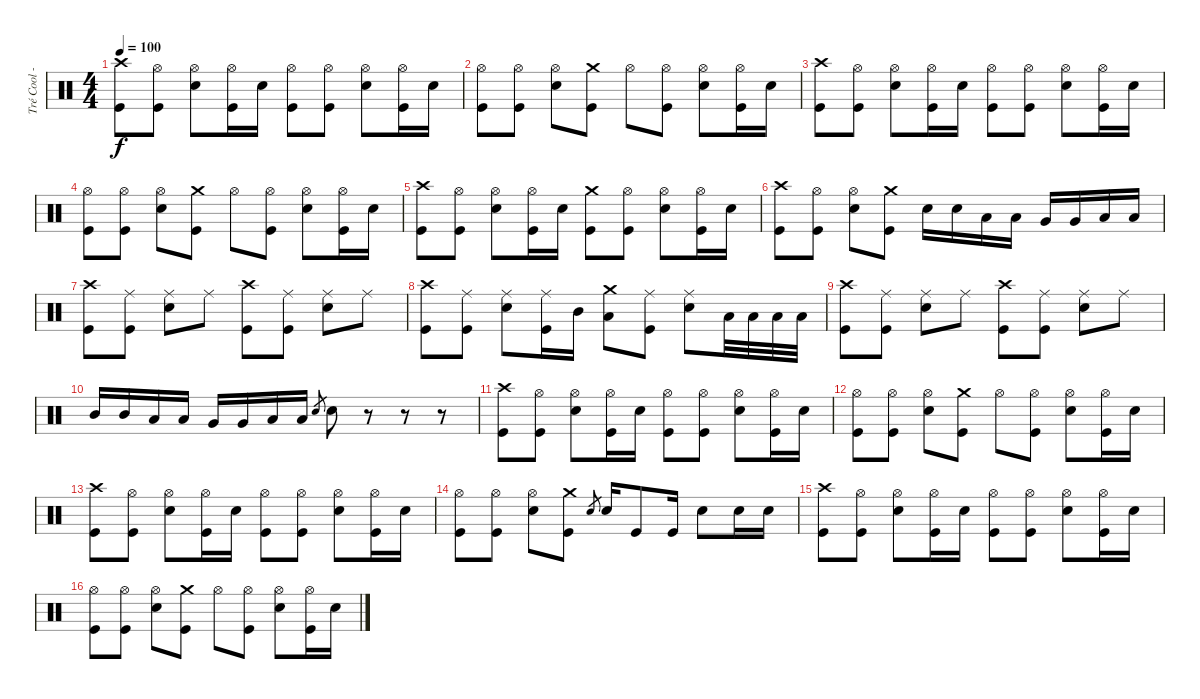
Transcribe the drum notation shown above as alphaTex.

\track ("Tré Cool - Drums" "Tré Cool -") {instrument percussion}
\staff {score}
\articulation defaults
\ts (4 4)
\tempo 100
\clef neutral
\ks c
("Crash high (hit)" "Kick (hit)").8{dy f} ("Hi-Hat (open)" "Kick (hit)").8 ("Hi-Hat (open)" "Electric Snare (hit)").8 ("Hi-Hat (open)" "Kick (hit)").16 "Electric Snare (hit)".16 ("Hi-Hat (open)" "Kick (hit)").8 ("Hi-Hat (open)" "Kick (hit)").8 ("Hi-Hat (open)" "Electric Snare (hit)").8 ("Hi-Hat (open)" "Kick (hit)").16 "Electric Snare (hit)".16 |
("Hi-Hat (open)" "Kick (hit)").8 ("Hi-Hat (open)" "Kick (hit)").8 ("Hi-Hat (open)" "Electric Snare (hit)").8 ("Crash medium (hit)" "Kick (hit)").8 "Hi-Hat (open)".8 ("Hi-Hat (open)" "Kick (hit)").8 ("Hi-Hat (open)" "Electric Snare (hit)").8 ("Hi-Hat (open)" "Kick (hit)").16 "Electric Snare (hit)".16 |
("Crash high (hit)" "Kick (hit)").8 ("Hi-Hat (open)" "Kick (hit)").8 ("Hi-Hat (open)" "Electric Snare (hit)").8 ("Hi-Hat (open)" "Kick (hit)").16 "Electric Snare (hit)".16 ("Hi-Hat (open)" "Kick (hit)").8 ("Hi-Hat (open)" "Kick (hit)").8 ("Hi-Hat (open)" "Electric Snare (hit)").8 ("Hi-Hat (open)" "Kick (hit)").16 "Electric Snare (hit)".16 |
("Hi-Hat (open)" "Kick (hit)").8 ("Hi-Hat (open)" "Kick (hit)").8 ("Hi-Hat (open)" "Electric Snare (hit)").8 ("Crash medium (hit)" "Kick (hit)").8 "Hi-Hat (open)".8 ("Hi-Hat (open)" "Kick (hit)").8 ("Hi-Hat (open)" "Electric Snare (hit)").8 ("Hi-Hat (open)" "Kick (hit)").16 "Electric Snare (hit)".16 |
("Crash high (hit)" "Kick (hit)").8 ("Hi-Hat (open)" "Kick (hit)").8 ("Hi-Hat (open)" "Electric Snare (hit)").8 ("Hi-Hat (open)" "Kick (hit)").16 "Electric Snare (hit)".16 ("Crash medium (hit)" "Kick (hit)").8 ("Hi-Hat (open)" "Kick (hit)").8 ("Hi-Hat (open)" "Electric Snare (hit)").8 ("Hi-Hat (open)" "Kick (hit)").16 "Electric Snare (hit)".16 |
("Crash high (hit)" "Kick (hit)").8 ("Hi-Hat (open)" "Kick (hit)").8 ("Hi-Hat (open)" "Electric Snare (hit)").8 ("Crash medium (hit)" "Kick (hit)").8 "Electric Snare (hit)".16 "Electric Snare (hit)".16 "Low Tom (hit)".16 "Low Tom (hit)".16 "Very Low Tom (hit)".16 "Very Low Tom (hit)".16 "Low Floor Tom (hit)".16 "Low Floor Tom (hit)".16 |
("Crash high (hit)" "Kick (hit)").8 ("Ride (middle)" "Kick (hit)").8 ("Ride (middle)" "Electric Snare (hit)").8 "Ride (middle)".8 ("Crash high (hit)" "Kick (hit)").8 ("Ride (middle)" "Kick (hit)").8 ("Ride (middle)" "Electric Snare (hit)").8 "Ride (middle)".8 |
("Crash high (hit)" "Kick (hit)").8 ("Ride (middle)" "Kick (hit)").8 ("Ride (middle)" "Electric Snare (hit)").8 ("Ride (middle)" "Kick (hit)").16 "Mid Tom (hit)".16 ("Crash medium (hit)" "Low Tom (hit)").8 ("Ride (middle)" "Kick (hit)").8 ("Ride (middle)" "Electric Snare (hit)").8 "Low Floor Tom (hit)".32 "Low Floor Tom (hit)".32 "Low Floor Tom (hit)".32 "Low Floor Tom (hit)".32 |
("Crash high (hit)" "Kick (hit)").8 ("Ride (middle)" "Kick (hit)").8 ("Ride (middle)" "Electric Snare (hit)").8 "Ride (middle)".8 ("Crash high (hit)" "Kick (hit)").8 ("Ride (middle)" "Kick (hit)").8 ("Ride (middle)" "Electric Snare (hit)").8 "Ride (middle)".8 |
"Mid Tom (hit)".16 "Mid Tom (hit)".16 "Low Tom (hit)".16 "Low Tom (hit)".16 "Very Low Tom (hit)".16 "Very Low Tom (hit)".16 "Low Floor Tom (hit)".16 "Low Floor Tom (hit)".16 "Electric Snare (hit)".8{gr} "Electric Snare (hit)".8 r.8 r.8 r.8 |
("Crash high (hit)" "Kick (hit)").8 ("Hi-Hat (open)" "Kick (hit)").8 ("Hi-Hat (open)" "Electric Snare (hit)").8 ("Hi-Hat (open)" "Kick (hit)").16 "Electric Snare (hit)".16 ("Hi-Hat (open)" "Kick (hit)").8 ("Hi-Hat (open)" "Kick (hit)").8 ("Hi-Hat (open)" "Electric Snare (hit)").8 ("Hi-Hat (open)" "Kick (hit)").16 "Electric Snare (hit)".16 |
("Hi-Hat (open)" "Kick (hit)").8 ("Hi-Hat (open)" "Kick (hit)").8 ("Hi-Hat (open)" "Electric Snare (hit)").8 ("Crash medium (hit)" "Kick (hit)").8 "Hi-Hat (open)".8 ("Hi-Hat (open)" "Kick (hit)").8 ("Hi-Hat (open)" "Electric Snare (hit)").8 ("Hi-Hat (open)" "Kick (hit)").16 "Electric Snare (hit)".16 |
("Crash high (hit)" "Kick (hit)").8 ("Hi-Hat (open)" "Kick (hit)").8 ("Hi-Hat (open)" "Electric Snare (hit)").8 ("Hi-Hat (open)" "Kick (hit)").16 "Electric Snare (hit)".16 ("Hi-Hat (open)" "Kick (hit)").8 ("Hi-Hat (open)" "Kick (hit)").8 ("Hi-Hat (open)" "Electric Snare (hit)").8 ("Hi-Hat (open)" "Kick (hit)").16 "Electric Snare (hit)".16 |
("Hi-Hat (open)" "Kick (hit)").8 ("Hi-Hat (open)" "Kick (hit)").8 ("Hi-Hat (open)" "Electric Snare (hit)").8 ("Crash medium (hit)" "Kick (hit)").8 "Electric Snare (hit)".8{gr} "Electric Snare (hit)".16 "Kick (hit)".8 "Kick (hit)".16 "Electric Snare (hit)".8 "Electric Snare (hit)".16 "Electric Snare (hit)".16 |
("Crash high (hit)" "Kick (hit)").8 ("Hi-Hat (open)" "Kick (hit)").8 ("Hi-Hat (open)" "Electric Snare (hit)").8 ("Hi-Hat (open)" "Kick (hit)").16 "Electric Snare (hit)".16 ("Hi-Hat (open)" "Kick (hit)").8 ("Hi-Hat (open)" "Kick (hit)").8 ("Hi-Hat (open)" "Electric Snare (hit)").8 ("Hi-Hat (open)" "Kick (hit)").16 "Electric Snare (hit)".16 |
("Hi-Hat (open)" "Kick (hit)").8 ("Hi-Hat (open)" "Kick (hit)").8 ("Hi-Hat (open)" "Electric Snare (hit)").8 ("Crash medium (hit)" "Kick (hit)").8 "Hi-Hat (open)".8 ("Hi-Hat (open)" "Kick (hit)").8 ("Hi-Hat (open)" "Electric Snare (hit)").8 ("Hi-Hat (open)" "Kick (hit)").16 "Electric Snare (hit)".16
